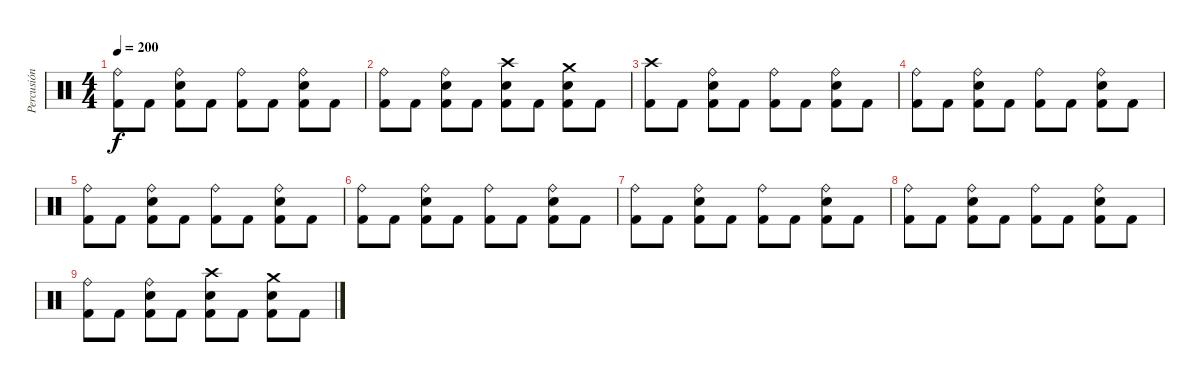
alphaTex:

\track ("Percusión" "Percusión") {instrument percussion}
\staff {score}
\articulation defaults
\ts (4 4)
\tempo 200
\clef neutral
\ks c
("Ride (bell)" "Kick (hit) 2").8{dy f volume 4} "Kick (hit) 2".8 ("Ride (bell)" "Kick (hit) 2" "Electric Snare (hit)").8 "Kick (hit) 2".8 ("Ride (bell)" "Kick (hit) 2").8 "Kick (hit) 2".8 ("Ride (bell)" "Kick (hit) 2" "Electric Snare (hit)").8 "Kick (hit) 2".8 |
("Ride (bell)" "Kick (hit) 2").8 "Kick (hit) 2".8 ("Ride (bell)" "Kick (hit) 2" "Electric Snare (hit)").8 "Kick (hit) 2".8 ("Crash high (hit)" "Kick (hit) 2" "Electric Snare (hit)").8 "Kick (hit) 2".8 ("Crash medium (hit)" "Kick (hit) 2" "Electric Snare (hit)").8 "Kick (hit) 2".8 |
("Crash high (hit)" "Kick (hit) 2").8{volume 3} "Kick (hit) 2".8 ("Ride (bell)" "Kick (hit) 2" "Electric Snare (hit)").8 "Kick (hit) 2".8 ("Ride (bell)" "Kick (hit) 2").8 "Kick (hit) 2".8 ("Ride (bell)" "Kick (hit) 2" "Electric Snare (hit)").8 "Kick (hit) 2".8 |
("Ride (bell)" "Kick (hit) 2").8 "Kick (hit) 2".8 ("Ride (bell)" "Kick (hit) 2" "Electric Snare (hit)").8 "Kick (hit) 2".8 ("Ride (bell)" "Kick (hit) 2").8 "Kick (hit) 2".8 ("Ride (bell)" "Kick (hit) 2" "Electric Snare (hit)").8 "Kick (hit) 2".8 |
("Ride (bell)" "Kick (hit) 2").8{volume 2} "Kick (hit) 2".8 ("Ride (bell)" "Kick (hit) 2" "Electric Snare (hit)").8 "Kick (hit) 2".8 ("Ride (bell)" "Kick (hit) 2").8 "Kick (hit) 2".8 ("Ride (bell)" "Kick (hit) 2" "Electric Snare (hit)").8 "Kick (hit) 2".8 |
("Ride (bell)" "Kick (hit) 2").8 "Kick (hit) 2".8 ("Ride (bell)" "Kick (hit) 2" "Electric Snare (hit)").8 "Kick (hit) 2".8 ("Ride (bell)" "Kick (hit) 2").8 "Kick (hit) 2".8 ("Ride (bell)" "Kick (hit) 2" "Electric Snare (hit)").8 "Kick (hit) 2".8 |
("Ride (bell)" "Kick (hit) 2").8 "Kick (hit) 2".8 ("Ride (bell)" "Kick (hit) 2" "Electric Snare (hit)").8 "Kick (hit) 2".8 ("Ride (bell)" "Kick (hit) 2").8 "Kick (hit) 2".8 ("Ride (bell)" "Kick (hit) 2" "Electric Snare (hit)").8 "Kick (hit) 2".8 |
("Ride (bell)" "Kick (hit) 2").8{volume 1} "Kick (hit) 2".8 ("Ride (bell)" "Kick (hit) 2" "Electric Snare (hit)").8 "Kick (hit) 2".8 ("Ride (bell)" "Kick (hit) 2").8 "Kick (hit) 2".8 ("Ride (bell)" "Kick (hit) 2" "Electric Snare (hit)").8 "Kick (hit) 2".8 |
("Ride (bell)" "Kick (hit) 2").8{volume 0} "Kick (hit) 2".8 ("Ride (bell)" "Kick (hit) 2" "Electric Snare (hit)").8 "Kick (hit) 2".8 ("Crash high (hit)" "Kick (hit) 2" "Electric Snare (hit)").8 "Kick (hit) 2".8 ("Crash medium (hit)" "Kick (hit) 2" "Electric Snare (hit)").8 "Kick (hit) 2".8
